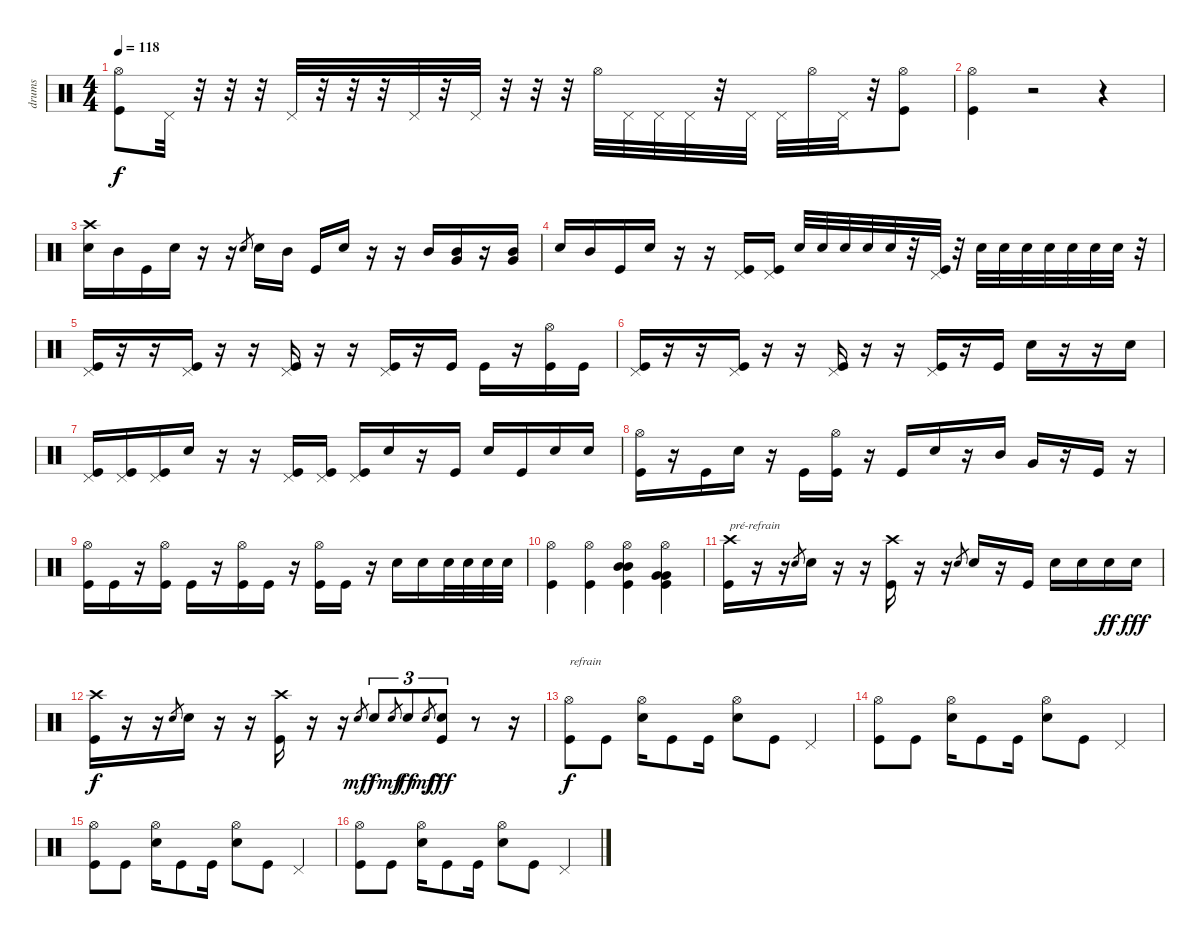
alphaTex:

\track ("drums" "drums") {instrument percussion}
\staff {score}
\articulation defaults
\ts (4 4)
\tempo 118
\clef neutral
\ks c
("Hi-Hat (open)" "Kick (hit)").8{dy f} "Pedal Hi-Hat (hit)".32 r.32 r.32 r.32 "Pedal Hi-Hat (hit)".32 r.32 r.32 r.32 "Pedal Hi-Hat (hit)".32 r.32 "Pedal Hi-Hat (hit)".32 r.32 r.32 r.32 "Hi-Hat (open)".32 "Pedal Hi-Hat (hit)".32 "Pedal Hi-Hat (hit)".32 "Pedal Hi-Hat (hit)".32 r.32 "Pedal Hi-Hat (hit)".32 "Pedal Hi-Hat (hit)".32 "Hi-Hat (open)".32 "Pedal Hi-Hat (hit)".32 r.32 ("Hi-Hat (open)" "Kick (hit)").8 |
("Hi-Hat (open)" "Kick (hit)").4 r.2 r.4 |
("Crash high (hit)" "Electric Snare (hit)").16 "Mid Tom (hit)".16 "Kick (hit)".16 "Electric Snare (hit)".16 r.16 r.16 "Electric Snare (hit)".8{gr} "Electric Snare (hit)".16 "Mid Tom (hit)".16 "Kick (hit)".16 "Metronome (bell)".16 r.16 r.16 "Mid Tom (hit)".16 ("Mid Tom (hit)" "Very Low Tom (hit)").16 r.16 ("Mid Tom (hit)" "Very Low Tom (hit)").16 |
"Electric Snare (hit)".16 "Mid Tom (hit)".16 "Kick (hit)".16 "Electric Snare (hit)".16 r.16 r.16 ("Pedal Hi-Hat (hit)" "Kick (hit)").16 ("Pedal Hi-Hat (hit)" "Kick (hit)").16 "Electric Snare (hit)".32 "Electric Snare (hit)".32 "Electric Snare (hit)".32 "Electric Snare (hit)".32 "Electric Snare (hit)".32 r.32 ("Pedal Hi-Hat (hit)" "Kick (hit)").32 r.32 "Electric Snare (hit)".32 "Electric Snare (hit)".32 "Electric Snare (hit)".32 "Electric Snare (hit)".32 "Electric Snare (hit)".32 "Electric Snare (hit)".32 "Electric Snare (hit)".32 r.32 |
("Pedal Hi-Hat (hit)" "Kick (hit)").16 r.16 r.16 ("Pedal Hi-Hat (hit)" "Kick (hit)").16 r.16 r.16 ("Pedal Hi-Hat (hit)" "Kick (hit)").16 r.16 r.16 ("Pedal Hi-Hat (hit)" "Kick (hit)").16 r.16 "Kick (hit)".16 "Kick (hit)".16 r.16 ("Hi-Hat (open)" "Kick (hit)").16 "Kick (hit)".16 |
("Pedal Hi-Hat (hit)" "Kick (hit)").16 r.16 r.16 ("Pedal Hi-Hat (hit)" "Kick (hit)").16 r.16 r.16 ("Pedal Hi-Hat (hit)" "Kick (hit)").16 r.16 r.16 ("Pedal Hi-Hat (hit)" "Kick (hit)").16 r.16 "Kick (hit)".16 "Electric Snare (hit)".16 r.16 r.16 "Electric Snare (hit)".16 |
("Pedal Hi-Hat (hit)" "Kick (hit)").16 ("Pedal Hi-Hat (hit)" "Kick (hit)").16 ("Pedal Hi-Hat (hit)" "Kick (hit)").16 "Electric Snare (hit)".16 r.16 r.16 ("Pedal Hi-Hat (hit)" "Kick (hit)").16 ("Pedal Hi-Hat (hit)" "Kick (hit)").16 ("Pedal Hi-Hat (hit)" "Kick (hit)").16 "Electric Snare (hit)".16 r.16 "Kick (hit)".16 "Electric Snare (hit)".16 "Kick (hit)".16 "Electric Snare (hit)".16 "Electric Snare (hit)".16 |
("Hi-Hat (open)" "Kick (hit)").16 r.16 "Kick (hit)".16 "Electric Snare (hit)".16 r.16 "Kick (hit)".16 ("Hi-Hat (open)" "Kick (hit)").16 r.16 "Kick (hit)".16 "Electric Snare (hit)".16 r.16 "Mid Tom (hit)".16 "Very Low Tom (hit)".16 r.16 "Kick (hit)".16 r.16 |
("Hi-Hat (open)" "Kick (hit)").16 "Kick (hit)".16 r.16 ("Hi-Hat (open)" "Kick (hit)").16 "Kick (hit)".16 r.16 ("Hi-Hat (open)" "Kick (hit)").16 "Kick (hit)".16 r.16 ("Hi-Hat (open)" "Kick (hit)").16 "Kick (hit)".16 r.16 "Electric Snare (hit)".16 "Electric Snare (hit)".16 "Electric Snare (hit)".32 "Electric Snare (hit)".32 "Electric Snare (hit)".32 "Electric Snare (hit)".32 |
("Hi-Hat (open)" "Kick (hit)").4 ("Hi-Hat (open)" "Kick (hit)").4 ("Mid Tom (hit)" "Hi-Hat (open)" "Mid Tom (hit)" "Kick (hit)").4 ("Very Low Tom (hit)" "Hi-Hat (open)" "Very Low Tom (hit)" "Kick (hit)").4 |
("Crash high (hit)" "Kick (hit)").16{txt "pré-refrain"} r.16 r.16 "Electric Snare (hit)".8{gr} "Electric Snare (hit)".16 r.16 r.16 ("Crash high (hit)" "Kick (hit)").16 r.16 r.16 "Electric Snare (hit)".8{gr} "Electric Snare (hit)".16 r.16 "Kick (hit)".16 "Electric Snare (hit)".16 "Electric Snare (hit)".16 "Electric Snare (hit)".16{dy ff} "Electric Snare (hit)".16{dy fff} |
("Crash high (hit)" "Kick (hit)").16{dy f} r.16 r.16 "Electric Snare (hit)".8{gr} "Electric Snare (hit)".16 r.16 r.16 ("Crash high (hit)" "Kick (hit)").16 r.16 r.16 "Electric Snare (hit)".8{gr dy mf} "Electric Snare (hit)".8{tu (3 2) dy f} "Electric Snare (hit)".8{gr dy mf} "Electric Snare (hit)".8{tu (3 2) dy ff} "Electric Snare (hit)".8{gr dy mf} ("Electric Snare (hit)" "Kick (hit)").8{tu (3 2) dy fff} r.8 r.16 |
("Hi-Hat (open)" "Kick (hit)").8{txt "refrain" dy f} "Kick (hit)".8 ("Hi-Hat (open)" "Electric Snare (hit)").16 "Kick (hit)".8 "Kick (hit)".16 ("Hi-Hat (open)" "Electric Snare (hit)").8 "Kick (hit)".8 "Pedal Hi-Hat (hit)".4 |
("Hi-Hat (open)" "Kick (hit)").8 "Kick (hit)".8 ("Hi-Hat (open)" "Electric Snare (hit)").16 "Kick (hit)".8 "Kick (hit)".16 ("Hi-Hat (open)" "Electric Snare (hit)").8 "Kick (hit)".8 "Pedal Hi-Hat (hit)".4 |
("Hi-Hat (open)" "Kick (hit)").8 "Kick (hit)".8 ("Hi-Hat (open)" "Electric Snare (hit)").16 "Kick (hit)".8 "Kick (hit)".16 ("Hi-Hat (open)" "Electric Snare (hit)").8 "Kick (hit)".8 "Pedal Hi-Hat (hit)".4 |
("Hi-Hat (open)" "Kick (hit)").8 "Kick (hit)".8 ("Hi-Hat (open)" "Electric Snare (hit)").16 "Kick (hit)".8 "Kick (hit)".16 ("Hi-Hat (open)" "Electric Snare (hit)").8 "Kick (hit)".8 "Pedal Hi-Hat (hit)".4
